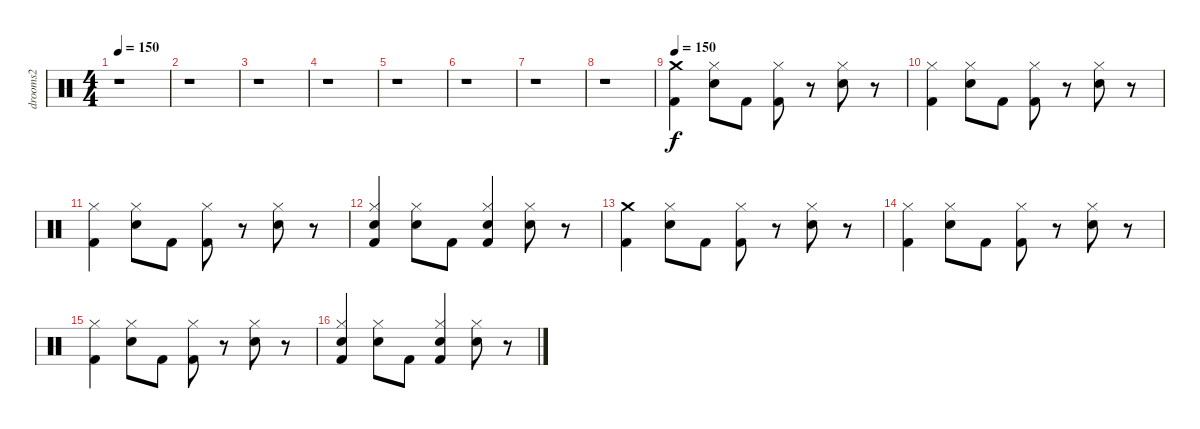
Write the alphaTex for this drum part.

\track ("drooms2" "drooms2") {instrument percussion}
\staff {score}
\articulation defaults
\ts (4 4)
\tempo 150
\clef neutral
\ks c
r.1{dy f} |
r.1 |
r.1 |
r.1 |
r.1 |
r.1 |
r.1 |
r.1 |
\tempo 150
("Crash medium (hit)" "Kick (hit) 2").4 ("Hi-Hat (closed)" "Snare (hit) 2").8 "Kick (hit) 2".8 ("Hi-Hat (closed)" "Kick (hit) 2").8 r.8 ("Hi-Hat (closed)" "Snare (hit) 2").8 r.8 |
("Hi-Hat (closed)" "Kick (hit) 2").4 ("Hi-Hat (closed)" "Snare (hit) 2").8 "Kick (hit) 2".8 ("Hi-Hat (closed)" "Kick (hit) 2").8 r.8 ("Hi-Hat (closed)" "Snare (hit) 2").8 r.8 |
("Hi-Hat (closed)" "Kick (hit) 2").4 ("Hi-Hat (closed)" "Snare (hit) 2").8 "Kick (hit) 2".8 ("Hi-Hat (closed)" "Kick (hit) 2").8 r.8 ("Hi-Hat (closed)" "Snare (hit) 2").8 r.8 |
("Snare (hit) 2" "Hi-Hat (closed)" "Kick (hit) 2").4 ("Hi-Hat (closed)" "Snare (hit) 2").8 "Kick (hit) 2".8 ("Snare (hit) 2" "Hi-Hat (closed)" "Kick (hit) 2").4 ("Hi-Hat (closed)" "Snare (hit) 2").8 r.8 |
("Crash medium (hit)" "Kick (hit) 2").4 ("Hi-Hat (closed)" "Snare (hit) 2").8 "Kick (hit) 2".8 ("Hi-Hat (closed)" "Kick (hit) 2").8 r.8 ("Hi-Hat (closed)" "Snare (hit) 2").8 r.8 |
("Hi-Hat (closed)" "Kick (hit) 2").4 ("Hi-Hat (closed)" "Snare (hit) 2").8 "Kick (hit) 2".8 ("Hi-Hat (closed)" "Kick (hit) 2").8 r.8 ("Hi-Hat (closed)" "Snare (hit) 2").8 r.8 |
("Hi-Hat (closed)" "Kick (hit) 2").4 ("Hi-Hat (closed)" "Snare (hit) 2").8 "Kick (hit) 2".8 ("Hi-Hat (closed)" "Kick (hit) 2").8 r.8 ("Hi-Hat (closed)" "Snare (hit) 2").8 r.8 |
("Snare (hit) 2" "Hi-Hat (closed)" "Kick (hit) 2").4 ("Hi-Hat (closed)" "Snare (hit) 2").8 "Kick (hit) 2".8 ("Snare (hit) 2" "Hi-Hat (closed)" "Kick (hit) 2").4 ("Hi-Hat (closed)" "Snare (hit) 2").8 r.8
